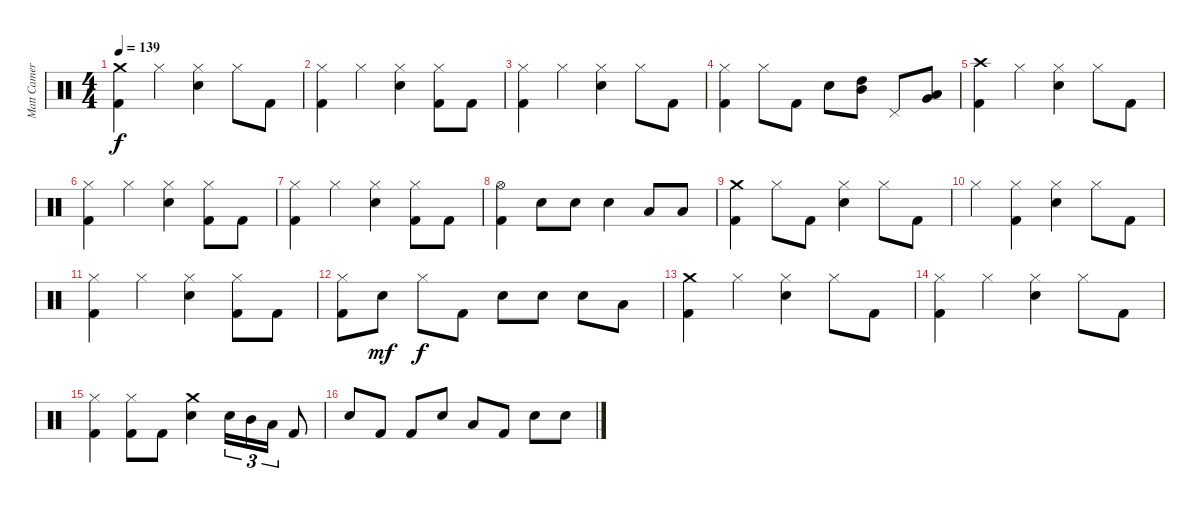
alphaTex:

\track ("Matt Cameron" "Matt Camer") {instrument percussion}
\staff {score}
\articulation defaults
\ts (4 4)
\tempo 139
\clef neutral
\ks c
("Crash medium (hit)" "Kick (hit) 2").4{dy f} "Hi-Hat (closed)".4 ("Hi-Hat (closed)" "Snare (hit) 2").4 "Hi-Hat (closed)".8 "Kick (hit) 2".8 |
("Hi-Hat (closed)" "Kick (hit) 2").4 "Hi-Hat (closed)".4 ("Hi-Hat (closed)" "Snare (hit) 2").4 ("Hi-Hat (closed)" "Kick (hit) 2").8 "Kick (hit) 2".8 |
("Hi-Hat (closed)" "Kick (hit) 2").4 "Hi-Hat (closed)".4 ("Hi-Hat (closed)" "Snare (hit) 2").4 "Hi-Hat (closed)".8 "Kick (hit) 2".8 |
("Hi-Hat (closed)" "Kick (hit) 2").4 "Hi-Hat (closed)".8 "Kick (hit) 2".8 "Snare (hit) 2".8 ("Mid Tom (hit)" "High Tom (hit)").8 "Pedal Hi-Hat (hit)".8 ("Low Tom (hit)" "Very Low Tom (hit)").8 |
("Crash high (hit)" "Kick (hit) 2").4 "Hi-Hat (closed)".4 ("Hi-Hat (closed)" "Snare (hit) 2").4 "Hi-Hat (closed)".8 "Kick (hit) 2".8 |
("Hi-Hat (closed)" "Kick (hit) 2").4 "Hi-Hat (closed)".4 ("Hi-Hat (closed)" "Snare (hit) 2").4 ("Hi-Hat (closed)" "Kick (hit) 2").8 "Kick (hit) 2".8 |
("Hi-Hat (closed)" "Kick (hit) 2").4 "Hi-Hat (closed)".4 ("Hi-Hat (closed)" "Snare (hit) 2").4 ("Hi-Hat (closed)" "Kick (hit) 2").8 "Kick (hit) 2".8 |
("Hi-Hat (open)" "Kick (hit) 2").4 "Snare (hit) 2".8 "Snare (hit) 2".8 "Snare (hit) 2".4 "Low Tom (hit)".8 "Low Tom (hit)".8 |
("Crash medium (hit)" "Kick (hit) 2").4 "Hi-Hat (closed)".8 "Kick (hit) 2".8 ("Hi-Hat (closed)" "Snare (hit) 2").4 "Hi-Hat (closed)".8 "Kick (hit) 2".8 |
"Hi-Hat (closed)".4 ("Hi-Hat (closed)" "Kick (hit) 2").4 ("Hi-Hat (closed)" "Snare (hit) 2").4 "Hi-Hat (closed)".8 "Kick (hit) 2".8 |
("Hi-Hat (closed)" "Kick (hit) 2").4 "Hi-Hat (closed)".4 ("Hi-Hat (closed)" "Snare (hit) 2").4 ("Hi-Hat (closed)" "Kick (hit) 2").8 "Kick (hit) 2".8 |
("Hi-Hat (closed)" "Kick (hit) 2").8 "Snare (hit) 2".8{dy mf} "Hi-Hat (closed)".8{dy f} "Kick (hit) 2".8 "Snare (hit) 2".8 "Snare (hit) 2".8 "Snare (hit) 2".8 "Low Tom (hit)".8 |
("Crash medium (hit)" "Kick (hit) 2").4 "Hi-Hat (closed)".4 ("Hi-Hat (closed)" "Snare (hit) 2").4 "Hi-Hat (closed)".8 "Kick (hit) 2".8 |
("Hi-Hat (closed)" "Kick (hit) 2").4 "Hi-Hat (closed)".4 ("Hi-Hat (closed)" "Snare (hit) 2").4 "Hi-Hat (closed)".8 "Kick (hit) 2".8 |
("Hi-Hat (closed)" "Kick (hit) 2").4 ("Hi-Hat (closed)" "Kick (hit) 2").8 "Kick (hit) 2".8 ("Crash medium (hit)" "Snare (hit) 2").4 "Snare (hit) 2".16{tu (3 2)} "Mid Tom (hit)".16{tu (3 2)} "Low Tom (hit)".16{tu (3 2)} "Kick (hit) 2".8 |
"Snare (hit) 2".8 "Kick (hit) 2".8 "Kick (hit) 2".8 "Snare (hit) 2".8 "Low Tom (hit)".8 "Kick (hit) 2".8 "Snare (hit) 2".8 "Snare (hit) 2".8
